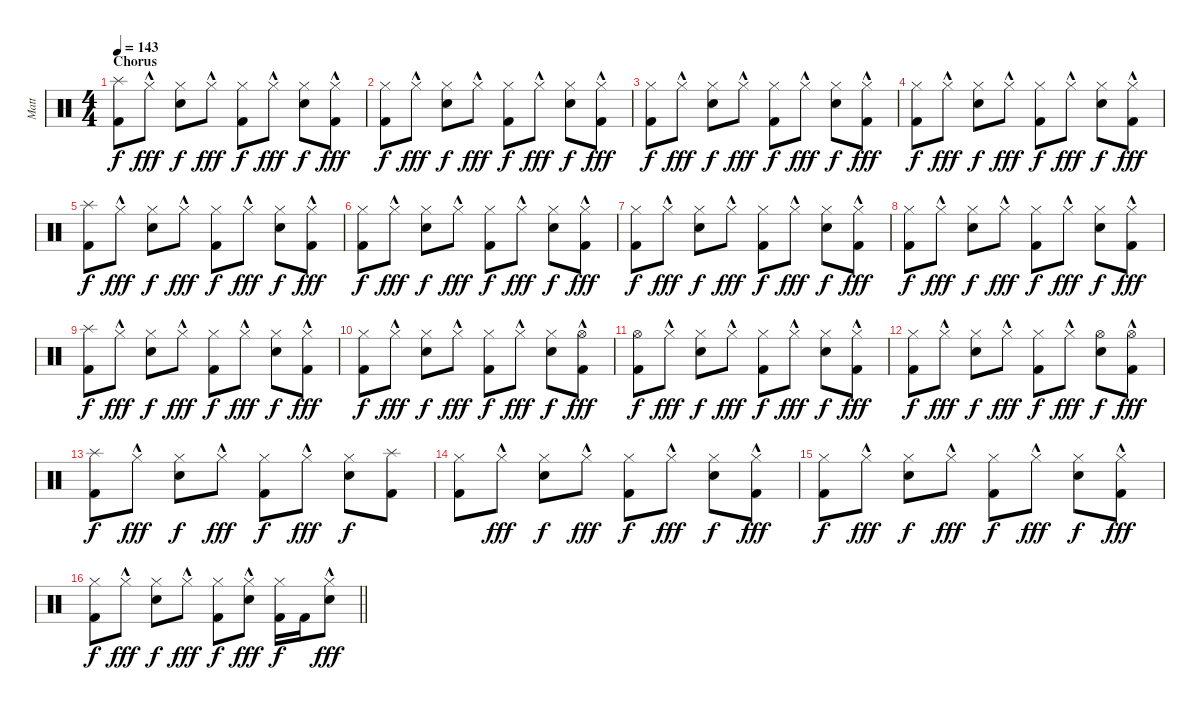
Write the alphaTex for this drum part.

\track ("Matt" "Matt") {instrument percussion}
\staff {score}
\articulation defaults
\ts (4 4)
\section ("" "Chorus")
\tempo 143
\clef neutral
\ks c
("Splash (hit)" "Kick (hit) 2").8{dy f} "Hi-Hat (closed)"{hac}.8{dy fff} ("Hi-Hat (closed)" "Snare (hit) 2").8{dy f} "Hi-Hat (closed)"{hac}.8{dy fff} ("Hi-Hat (closed)" "Kick (hit) 2").8{dy f} "Hi-Hat (closed)"{hac}.8{dy fff} ("Hi-Hat (closed)" "Snare (hit) 2").8{dy f} ("Hi-Hat (closed)"{hac} "Kick (hit) 2").8{dy fff} |
("Hi-Hat (closed)" "Kick (hit) 2").8{dy f} "Hi-Hat (closed)"{hac}.8{dy fff} ("Hi-Hat (closed)" "Snare (hit) 2").8{dy f} "Hi-Hat (closed)"{hac}.8{dy fff} ("Hi-Hat (closed)" "Kick (hit) 2").8{dy f} "Hi-Hat (closed)"{hac}.8{dy fff} ("Hi-Hat (closed)" "Snare (hit) 2").8{dy f} ("Hi-Hat (closed)"{hac} "Kick (hit) 2").8{dy fff} |
("Hi-Hat (closed)" "Kick (hit) 2").8{dy f} "Hi-Hat (closed)"{hac}.8{dy fff} ("Hi-Hat (closed)" "Snare (hit) 2").8{dy f} "Hi-Hat (closed)"{hac}.8{dy fff} ("Hi-Hat (closed)" "Kick (hit) 2").8{dy f} "Hi-Hat (closed)"{hac}.8{dy fff} ("Hi-Hat (closed)" "Snare (hit) 2").8{dy f} ("Hi-Hat (closed)"{hac} "Kick (hit) 2").8{dy fff} |
("Hi-Hat (closed)" "Kick (hit) 2").8{dy f} "Hi-Hat (closed)"{hac}.8{dy fff} ("Hi-Hat (closed)" "Snare (hit) 2").8{dy f} "Hi-Hat (closed)"{hac}.8{dy fff} ("Hi-Hat (closed)" "Kick (hit) 2").8{dy f} "Hi-Hat (closed)"{hac}.8{dy fff} ("Hi-Hat (closed)" "Snare (hit) 2").8{dy f} ("Hi-Hat (closed)"{hac} "Kick (hit) 2").8{dy fff} |
("Splash (hit)" "Kick (hit) 2").8{dy f} "Hi-Hat (closed)"{hac}.8{dy fff} ("Hi-Hat (closed)" "Snare (hit) 2").8{dy f} "Hi-Hat (closed)"{hac}.8{dy fff} ("Hi-Hat (closed)" "Kick (hit) 2").8{dy f} "Hi-Hat (closed)"{hac}.8{dy fff} ("Hi-Hat (closed)" "Snare (hit) 2").8{dy f} ("Hi-Hat (closed)"{hac} "Kick (hit) 2").8{dy fff} |
("Hi-Hat (closed)" "Kick (hit) 2").8{dy f} "Hi-Hat (closed)"{hac}.8{dy fff} ("Hi-Hat (closed)" "Snare (hit) 2").8{dy f} "Hi-Hat (closed)"{hac}.8{dy fff} ("Hi-Hat (closed)" "Kick (hit) 2").8{dy f} "Hi-Hat (closed)"{hac}.8{dy fff} ("Hi-Hat (closed)" "Snare (hit) 2").8{dy f} ("Hi-Hat (closed)"{hac} "Kick (hit) 2").8{dy fff} |
("Hi-Hat (closed)" "Kick (hit) 2").8{dy f} "Hi-Hat (closed)"{hac}.8{dy fff} ("Hi-Hat (closed)" "Snare (hit) 2").8{dy f} "Hi-Hat (closed)"{hac}.8{dy fff} ("Hi-Hat (closed)" "Kick (hit) 2").8{dy f} "Hi-Hat (closed)"{hac}.8{dy fff} ("Hi-Hat (closed)" "Snare (hit) 2").8{dy f} ("Hi-Hat (closed)"{hac} "Kick (hit) 2").8{dy fff} |
("Hi-Hat (closed)" "Kick (hit) 2").8{dy f} "Hi-Hat (closed)"{hac}.8{dy fff} ("Hi-Hat (closed)" "Snare (hit) 2").8{dy f} "Hi-Hat (closed)"{hac}.8{dy fff} ("Hi-Hat (closed)" "Kick (hit) 2").8{dy f} "Hi-Hat (closed)"{hac}.8{dy fff} ("Hi-Hat (closed)" "Snare (hit) 2").8{dy f} ("Hi-Hat (closed)"{hac} "Kick (hit) 2").8{dy fff} |
("Splash (hit)" "Kick (hit) 2").8{dy f} "Hi-Hat (closed)"{hac}.8{dy fff} ("Hi-Hat (closed)" "Snare (hit) 2").8{dy f} "Hi-Hat (closed)"{hac}.8{dy fff} ("Hi-Hat (closed)" "Kick (hit) 2").8{dy f} "Hi-Hat (closed)"{hac}.8{dy fff} ("Hi-Hat (closed)" "Snare (hit) 2").8{dy f} ("Hi-Hat (closed)"{hac} "Kick (hit) 2").8{dy fff} |
("Hi-Hat (closed)" "Kick (hit) 2").8{dy f} "Hi-Hat (closed)"{hac}.8{dy fff} ("Hi-Hat (closed)" "Snare (hit) 2").8{dy f} "Hi-Hat (closed)"{hac}.8{dy fff} ("Hi-Hat (closed)" "Kick (hit) 2").8{dy f} "Hi-Hat (closed)"{hac}.8{dy fff} ("Hi-Hat (closed)" "Snare (hit) 2").8{dy f} ("Hi-Hat (open)"{hac} "Kick (hit) 2").8{dy fff} |
("Hi-Hat (open)" "Kick (hit) 2").8{dy f} "Hi-Hat (closed)"{hac}.8{dy fff} ("Hi-Hat (closed)" "Snare (hit) 2").8{dy f} "Hi-Hat (closed)"{hac}.8{dy fff} ("Hi-Hat (closed)" "Kick (hit) 2").8{dy f} "Hi-Hat (closed)"{hac}.8{dy fff} ("Hi-Hat (closed)" "Snare (hit) 2").8{dy f} ("Hi-Hat (closed)"{hac} "Kick (hit) 2").8{dy fff} |
("Hi-Hat (closed)" "Kick (hit) 2").8{dy f} "Hi-Hat (closed)"{hac}.8{dy fff} ("Hi-Hat (closed)" "Snare (hit) 2").8{dy f} "Hi-Hat (closed)"{hac}.8{dy fff} ("Hi-Hat (closed)" "Kick (hit) 2").8{dy f} "Hi-Hat (closed)"{hac}.8{dy fff} ("Hi-Hat (open)" "Snare (hit) 2").8{dy f} ("Hi-Hat (open)"{hac} "Kick (hit) 2").8{dy fff} |
("Splash (hit)" "Kick (hit) 2").8{dy f} "Hi-Hat (closed)"{hac}.8{dy fff} ("Hi-Hat (closed)" "Snare (hit) 2").8{dy f} "Hi-Hat (closed)"{hac}.8{dy fff} ("Hi-Hat (closed)" "Kick (hit) 2").8{dy f} "Hi-Hat (closed)"{hac}.8{dy fff} ("Hi-Hat (closed)" "Snare (hit) 2").8{dy f} ("Splash (hit)" "Kick (hit) 2").8 |
("Hi-Hat (closed)" "Kick (hit) 2").8 "Hi-Hat (closed)"{hac}.8{dy fff} ("Hi-Hat (closed)" "Snare (hit) 2").8{dy f} "Hi-Hat (closed)"{hac}.8{dy fff} ("Hi-Hat (closed)" "Kick (hit) 2").8{dy f} "Hi-Hat (closed)"{hac}.8{dy fff} ("Hi-Hat (closed)" "Snare (hit) 2").8{dy f} ("Hi-Hat (closed)"{hac} "Kick (hit) 2").8{dy fff} |
("Hi-Hat (closed)" "Kick (hit) 2").8{dy f} "Hi-Hat (closed)"{hac}.8{dy fff} ("Hi-Hat (closed)" "Snare (hit) 2").8{dy f} "Hi-Hat (closed)"{hac}.8{dy fff} ("Hi-Hat (closed)" "Kick (hit) 2").8{dy f} "Hi-Hat (closed)"{hac}.8{dy fff} ("Hi-Hat (closed)" "Snare (hit) 2").8{dy f} ("Hi-Hat (closed)"{hac} "Kick (hit) 2").8{dy fff} |
\barLineRight lightlight
("Hi-Hat (closed)" "Kick (hit) 2").8{dy f} "Hi-Hat (closed)"{hac}.8{dy fff} ("Hi-Hat (closed)" "Snare (hit) 2").8{dy f} "Hi-Hat (closed)"{hac}.8{dy fff} ("Hi-Hat (closed)" "Kick (hit) 2").8{dy f} ("Hi-Hat (closed)"{hac} "Snare (hit) 2").8{dy fff} ("Hi-Hat (closed)" "Kick (hit) 2").16{dy f} "Kick (hit) 2".16 ("Hi-Hat (closed)"{hac} "Snare (hit) 2").8{dy fff}
